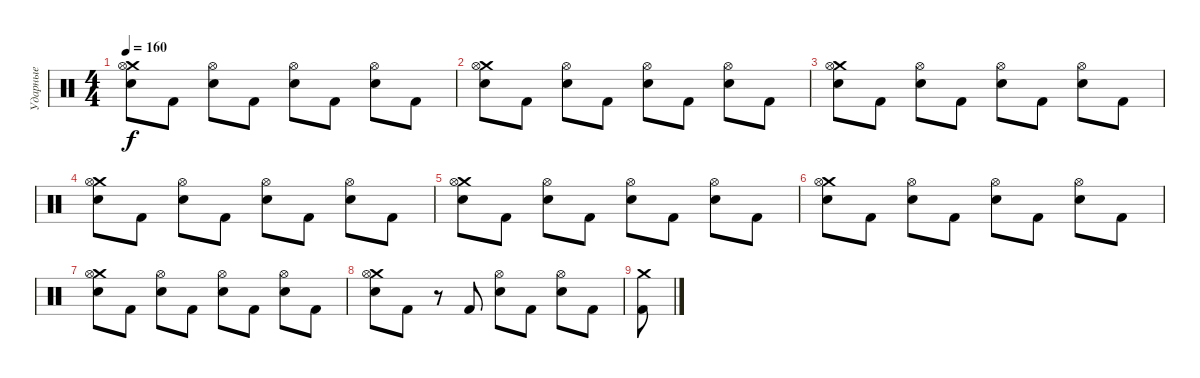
\track ("Ударные" "Ударные") {instrument percussion}
\staff {score}
\articulation defaults
\ts (4 4)
\tempo 160
\clef neutral
\ks c
("Crash medium (hit)" "Hi-Hat (open)" "Snare (hit) 2").8{dy f} "Kick (hit) 2".8 ("Hi-Hat (open)" "Snare (hit) 2").8 "Kick (hit) 2".8 ("Hi-Hat (open)" "Snare (hit) 2").8 "Kick (hit) 2".8 ("Hi-Hat (open)" "Snare (hit) 2").8 "Kick (hit) 2".8 |
("Crash medium (hit)" "Hi-Hat (open)" "Snare (hit) 2").8 "Kick (hit) 2".8 ("Hi-Hat (open)" "Snare (hit) 2").8 "Kick (hit) 2".8 ("Hi-Hat (open)" "Snare (hit) 2").8 "Kick (hit) 2".8 ("Hi-Hat (open)" "Snare (hit) 2").8 "Kick (hit) 2".8 |
("Crash medium (hit)" "Hi-Hat (open)" "Snare (hit) 2").8 "Kick (hit) 2".8 ("Hi-Hat (open)" "Snare (hit) 2").8 "Kick (hit) 2".8 ("Hi-Hat (open)" "Snare (hit) 2").8 "Kick (hit) 2".8 ("Hi-Hat (open)" "Snare (hit) 2").8 "Kick (hit) 2".8 |
("Crash medium (hit)" "Hi-Hat (open)" "Snare (hit) 2").8 "Kick (hit) 2".8 ("Hi-Hat (open)" "Snare (hit) 2").8 "Kick (hit) 2".8 ("Hi-Hat (open)" "Snare (hit) 2").8 "Kick (hit) 2".8 ("Hi-Hat (open)" "Snare (hit) 2").8 "Kick (hit) 2".8 |
("Crash medium (hit)" "Hi-Hat (open)" "Snare (hit) 2").8 "Kick (hit) 2".8 ("Hi-Hat (open)" "Snare (hit) 2").8 "Kick (hit) 2".8 ("Hi-Hat (open)" "Snare (hit) 2").8 "Kick (hit) 2".8 ("Hi-Hat (open)" "Snare (hit) 2").8 "Kick (hit) 2".8 |
("Crash medium (hit)" "Hi-Hat (open)" "Snare (hit) 2").8 "Kick (hit) 2".8 ("Hi-Hat (open)" "Snare (hit) 2").8 "Kick (hit) 2".8 ("Hi-Hat (open)" "Snare (hit) 2").8 "Kick (hit) 2".8 ("Hi-Hat (open)" "Snare (hit) 2").8 "Kick (hit) 2".8 |
("Crash medium (hit)" "Hi-Hat (open)" "Snare (hit) 2").8 "Kick (hit) 2".8 ("Hi-Hat (open)" "Snare (hit) 2").8 "Kick (hit) 2".8 ("Hi-Hat (open)" "Snare (hit) 2").8 "Kick (hit) 2".8 ("Hi-Hat (open)" "Snare (hit) 2").8 "Kick (hit) 2".8 |
("Crash medium (hit)" "Hi-Hat (open)" "Snare (hit) 2").8 "Kick (hit) 2".8 r.8 "Kick (hit) 2".8 ("Hi-Hat (open)" "Snare (hit) 2").8 "Kick (hit) 2".8 ("Hi-Hat (open)" "Snare (hit) 2").8 "Kick (hit) 2".8 |
("Crash medium (hit)" "Kick (hit) 2").8
